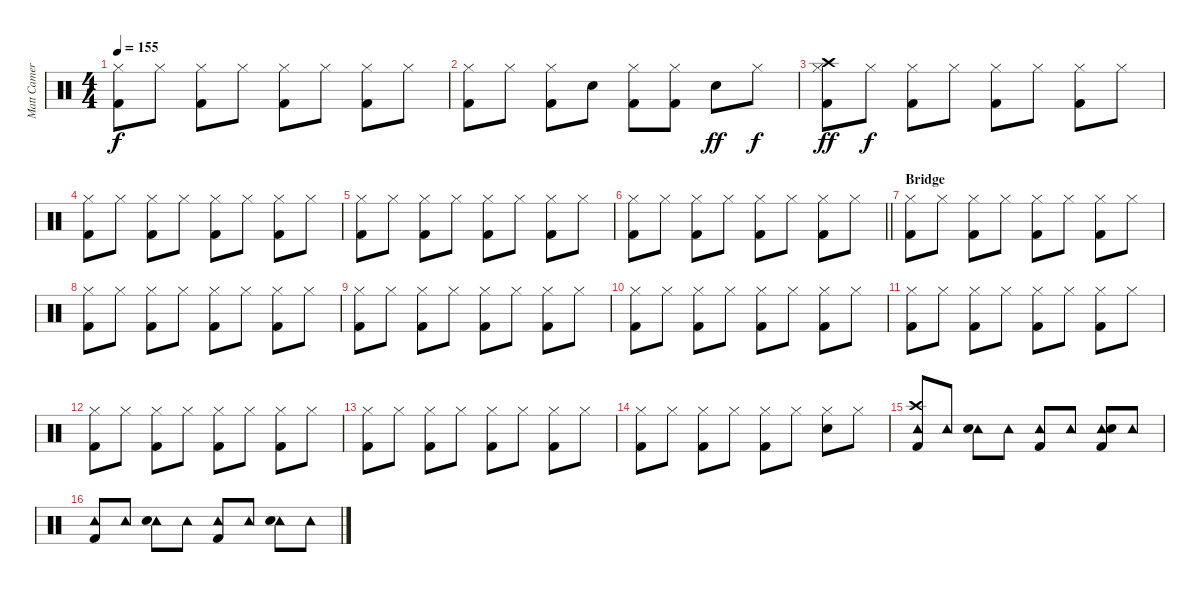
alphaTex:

\track ("Matt Cameron" "Matt Camer") {instrument percussion}
\staff {score}
\articulation defaults
\ts (4 4)
\tempo 155
\clef neutral
\ks c
("Hi-Hat (closed)" "Kick (hit) 2").8{dy f} "Hi-Hat (closed)".8 ("Hi-Hat (closed)" "Kick (hit) 2").8 "Hi-Hat (closed)".8 ("Hi-Hat (closed)" "Kick (hit) 2").8 "Hi-Hat (closed)".8 ("Hi-Hat (closed)" "Kick (hit) 2").8 "Hi-Hat (closed)".8 |
("Hi-Hat (closed)" "Kick (hit) 2").8 "Hi-Hat (closed)".8 ("Hi-Hat (closed)" "Kick (hit) 2").8 "Snare (hit) 2".8 ("Hi-Hat (closed)" "Kick (hit) 2").8 ("Hi-Hat (closed)" "Kick (hit) 2").8 "Snare (hit) 2".8{dy ff} "Hi-Hat (closed)".8{dy f} |
("Crash high (hit)" "Hi-Hat (closed)" "Kick (hit) 2").8{dy ff} "Hi-Hat (closed)".8{dy f} ("Hi-Hat (closed)" "Kick (hit) 2").8 "Hi-Hat (closed)".8 ("Hi-Hat (closed)" "Kick (hit) 2").8 "Hi-Hat (closed)".8 ("Hi-Hat (closed)" "Kick (hit) 2").8 "Hi-Hat (closed)".8 |
("Hi-Hat (closed)" "Kick (hit) 2").8 "Hi-Hat (closed)".8 ("Hi-Hat (closed)" "Kick (hit) 2").8 "Hi-Hat (closed)".8 ("Hi-Hat (closed)" "Kick (hit) 2").8 "Hi-Hat (closed)".8 ("Hi-Hat (closed)" "Kick (hit) 2").8 "Hi-Hat (closed)".8 |
("Hi-Hat (closed)" "Kick (hit) 2").8 "Hi-Hat (closed)".8 ("Hi-Hat (closed)" "Kick (hit) 2").8 "Hi-Hat (closed)".8 ("Hi-Hat (closed)" "Kick (hit) 2").8 "Hi-Hat (closed)".8 ("Hi-Hat (closed)" "Kick (hit) 2").8 "Hi-Hat (closed)".8 |
\barLineRight lightlight
("Hi-Hat (closed)" "Kick (hit) 2").8 "Hi-Hat (closed)".8 ("Hi-Hat (closed)" "Kick (hit) 2").8 "Hi-Hat (closed)".8 ("Hi-Hat (closed)" "Kick (hit) 2").8 "Hi-Hat (closed)".8 ("Hi-Hat (closed)" "Kick (hit) 2").8 "Hi-Hat (closed)".8 |
\section ("" "Bridge")
("Hi-Hat (closed)" "Kick (hit) 2").8 "Hi-Hat (closed)".8 ("Hi-Hat (closed)" "Kick (hit) 2").8 "Hi-Hat (closed)".8 ("Hi-Hat (closed)" "Kick (hit) 2").8 "Hi-Hat (closed)".8 ("Hi-Hat (closed)" "Kick (hit) 2").8 "Hi-Hat (closed)".8 |
("Hi-Hat (closed)" "Kick (hit) 2").8 "Hi-Hat (closed)".8 ("Hi-Hat (closed)" "Kick (hit) 2").8 "Hi-Hat (closed)".8 ("Hi-Hat (closed)" "Kick (hit) 2").8 "Hi-Hat (closed)".8 ("Hi-Hat (closed)" "Kick (hit) 2").8 "Hi-Hat (closed)".8 |
("Hi-Hat (closed)" "Kick (hit) 2").8 "Hi-Hat (closed)".8 ("Hi-Hat (closed)" "Kick (hit) 2").8 "Hi-Hat (closed)".8 ("Hi-Hat (closed)" "Kick (hit) 2").8 "Hi-Hat (closed)".8 ("Hi-Hat (closed)" "Kick (hit) 2").8 "Hi-Hat (closed)".8 |
("Hi-Hat (closed)" "Kick (hit) 2").8 "Hi-Hat (closed)".8 ("Hi-Hat (closed)" "Kick (hit) 2").8 "Hi-Hat (closed)".8 ("Hi-Hat (closed)" "Kick (hit) 2").8 "Hi-Hat (closed)".8 ("Hi-Hat (closed)" "Kick (hit) 2").8 "Hi-Hat (closed)".8 |
("Hi-Hat (closed)" "Kick (hit) 2").8 "Hi-Hat (closed)".8 ("Hi-Hat (closed)" "Kick (hit) 2").8 "Hi-Hat (closed)".8 ("Hi-Hat (closed)" "Kick (hit) 2").8 "Hi-Hat (closed)".8 ("Hi-Hat (closed)" "Kick (hit) 2").8 "Hi-Hat (closed)".8 |
("Hi-Hat (closed)" "Kick (hit) 2").8 "Hi-Hat (closed)".8 ("Hi-Hat (closed)" "Kick (hit) 2").8 "Hi-Hat (closed)".8 ("Hi-Hat (closed)" "Kick (hit) 2").8 "Hi-Hat (closed)".8 ("Hi-Hat (closed)" "Kick (hit) 2").8 "Hi-Hat (closed)".8 |
("Hi-Hat (closed)" "Kick (hit) 2").8 "Hi-Hat (closed)".8 ("Hi-Hat (closed)" "Kick (hit) 2").8 "Hi-Hat (closed)".8 ("Hi-Hat (closed)" "Kick (hit) 2").8 "Hi-Hat (closed)".8 ("Hi-Hat (closed)" "Kick (hit) 2").8 "Hi-Hat (closed)".8 |
("Hi-Hat (closed)" "Kick (hit) 2").8 "Hi-Hat (closed)".8 ("Hi-Hat (closed)" "Kick (hit) 2").8 "Hi-Hat (closed)".8 ("Hi-Hat (closed)" "Kick (hit) 2").8 "Hi-Hat (closed)".8 ("Hi-Hat (closed)" "Snare (hit) 2").8 "Hi-Hat (closed)".8 |
("Crash high (hit)" "Tambourine (hit)" "Kick (hit) 2").8 "Tambourine (hit)".8 ("Tambourine (hit)" "Snare (hit) 2").8 "Tambourine (hit)".8 ("Tambourine (hit)" "Kick (hit) 2").8 "Tambourine (hit)".8 ("Tambourine (hit)" "Snare (hit) 2" "Kick (hit) 2").8 "Tambourine (hit)".8 |
("Tambourine (hit)" "Kick (hit) 2").8 "Tambourine (hit)".8 ("Tambourine (hit)" "Snare (hit) 2").8 "Tambourine (hit)".8 ("Tambourine (hit)" "Kick (hit) 2").8 "Tambourine (hit)".8 ("Tambourine (hit)" "Snare (hit) 2").8 "Tambourine (hit)".8
